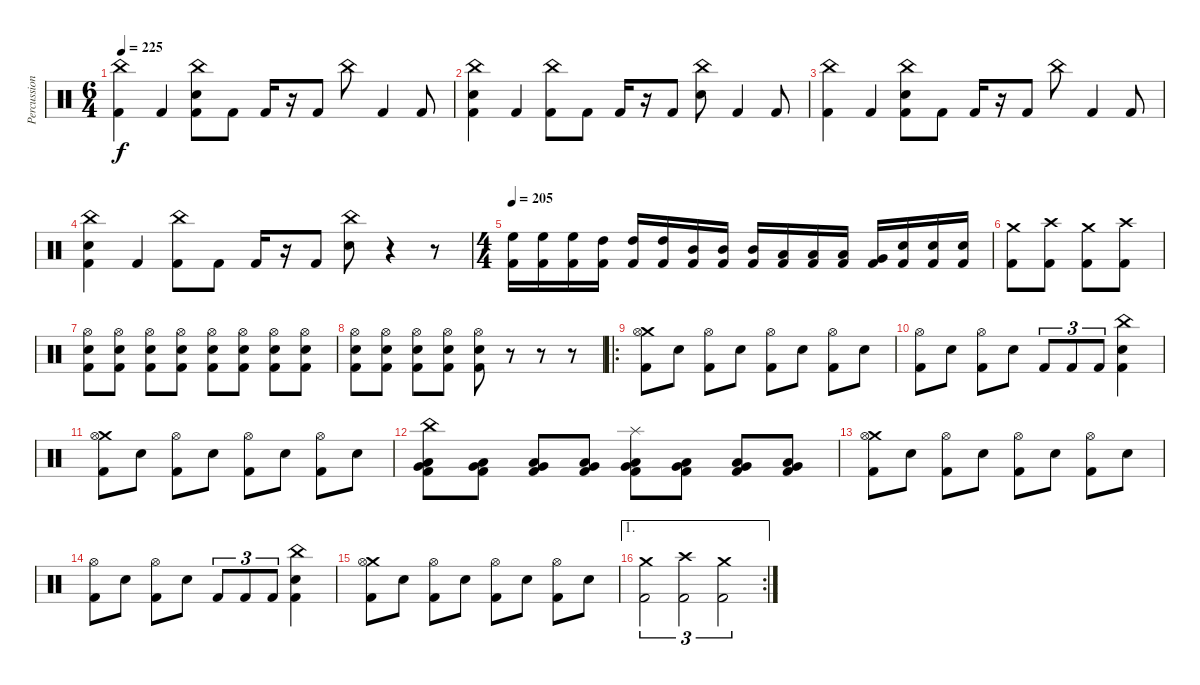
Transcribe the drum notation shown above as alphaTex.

\track ("Percussion" "Percussion") {instrument percussion}
\staff {score}
\articulation defaults
\ts (6 4)
\tempo 225
\clef neutral
\ks c
("China (hit)" "Kick (hit) 2").4{dy f} "Kick (hit) 2".4 ("China (hit)" "Snare (hit) 2" "Kick (hit) 2").8 "Kick (hit) 2".8 "Kick (hit) 2".16 r.16 "Kick (hit) 2".8 "China (hit)".8 "Kick (hit) 2".4 "Kick (hit) 2".8 |
("China (hit)" "Snare (hit) 2" "Kick (hit) 2").4 "Kick (hit) 2".4 ("China (hit)" "Kick (hit) 2").8 "Kick (hit) 2".8 "Kick (hit) 2".16 r.16 "Kick (hit) 2".8 ("China (hit)" "Snare (hit) 2").8 "Kick (hit) 2".4 "Kick (hit) 2".8 |
("China (hit)" "Kick (hit) 2").4 "Kick (hit) 2".4 ("China (hit)" "Snare (hit) 2" "Kick (hit) 2").8 "Kick (hit) 2".8 "Kick (hit) 2".16 r.16 "Kick (hit) 2".8 "China (hit)".8 "Kick (hit) 2".4 "Kick (hit) 2".8 |
("China (hit)" "Snare (hit) 2" "Kick (hit) 2").4 "Kick (hit) 2".4 ("China (hit)" "Kick (hit) 2").8 "Kick (hit) 2".8 "Kick (hit) 2".16 r.16 "Kick (hit) 2".8 ("China (hit)" "Snare (hit) 2").8 r.4 r.8 |
\ts (4 4)
\tempo 205
("High Floor Tom (hit)" "Kick (hit) 2").16 ("High Floor Tom (hit)" "Kick (hit) 2").16 ("High Floor Tom (hit)" "Kick (hit) 2").16 ("High Tom (hit)" "Kick (hit) 2").16 ("High Tom (hit)" "Kick (hit) 2").16 ("High Tom (hit)" "Kick (hit) 2").16 ("Mid Tom (hit)" "Kick (hit) 2").16 ("Mid Tom (hit)" "Kick (hit) 2").16 ("Mid Tom (hit)" "Kick (hit) 2").16 ("Low Tom (hit)" "Kick (hit) 2").16 ("Low Tom (hit)" "Kick (hit) 2").16 ("Low Tom (hit)" "Kick (hit) 2").16 ("Very Low Tom (hit)" "Kick (hit) 2").16 ("Snare (hit) 2" "Kick (hit) 2").16 ("Snare (hit) 2" "Kick (hit) 2").16 ("Snare (hit) 2" "Kick (hit) 2").16 |
("Crash medium (hit)" "Kick (hit) 2").8 ("Crash high (hit)" "Kick (hit) 2").8 ("Crash medium (hit)" "Kick (hit) 2").8 ("Crash high (hit)" "Kick (hit) 2").8 |
("Hi-Hat (open)" "Snare (hit) 2" "Kick (hit) 2").8 ("Hi-Hat (open)" "Snare (hit) 2" "Kick (hit) 2").8 ("Hi-Hat (open)" "Snare (hit) 2" "Kick (hit) 2").8 ("Hi-Hat (open)" "Snare (hit) 2" "Kick (hit) 2").8 ("Hi-Hat (open)" "Snare (hit) 2" "Kick (hit) 2").8 ("Hi-Hat (open)" "Snare (hit) 2" "Kick (hit) 2").8 ("Hi-Hat (open)" "Snare (hit) 2" "Kick (hit) 2").8 ("Hi-Hat (open)" "Snare (hit) 2" "Kick (hit) 2").8 |
("Hi-Hat (open)" "Snare (hit) 2" "Kick (hit) 2").8 ("Hi-Hat (open)" "Snare (hit) 2" "Kick (hit) 2").8 ("Hi-Hat (open)" "Snare (hit) 2" "Kick (hit) 2").8 ("Hi-Hat (open)" "Snare (hit) 2" "Kick (hit) 2").8 ("Hi-Hat (open)" "Snare (hit) 2" "Kick (hit) 2").8 r.8 r.8 r.8 |
\ro
("Crash medium (hit)" "Hi-Hat (open)" "Kick (hit) 2").8 "Snare (hit) 2".8 ("Hi-Hat (open)" "Kick (hit) 2").8 "Snare (hit) 2".8 ("Hi-Hat (open)" "Kick (hit) 2").8 "Snare (hit) 2".8 ("Hi-Hat (open)" "Kick (hit) 2").8 "Snare (hit) 2".8 |
("Hi-Hat (open)" "Kick (hit) 2").8 "Snare (hit) 2".8 ("Hi-Hat (open)" "Kick (hit) 2").8 "Snare (hit) 2".8 "Kick (hit) 2".8{tu (3 2)} "Kick (hit) 2".8{tu (3 2)} "Kick (hit) 2".8{tu (3 2)} ("China (hit)" "Snare (hit) 2" "Kick (hit) 2").4 |
("Crash medium (hit)" "Hi-Hat (open)" "Kick (hit) 2").8 "Snare (hit) 2".8 ("Hi-Hat (open)" "Kick (hit) 2").8 "Snare (hit) 2".8 ("Hi-Hat (open)" "Kick (hit) 2").8 "Snare (hit) 2".8 ("Hi-Hat (open)" "Kick (hit) 2").8 "Snare (hit) 2".8 |
("China (hit)" "Low Tom (hit)" "Kick (hit) 2" "Very Low Tom (hit)").8 ("Low Tom (hit)" "Kick (hit) 2" "Very Low Tom (hit)").8 ("Low Tom (hit)" "Kick (hit) 2" "Very Low Tom (hit)").8 ("Low Tom (hit)" "Kick (hit) 2" "Very Low Tom (hit)").8 ("Splash (hit)" "Low Tom (hit)" "Kick (hit) 2" "Very Low Tom (hit)").8 ("Low Tom (hit)" "Kick (hit) 2" "Very Low Tom (hit)").8 ("Low Tom (hit)" "Kick (hit) 2" "Very Low Tom (hit)").8 ("Low Tom (hit)" "Kick (hit) 2" "Very Low Tom (hit)").8 |
("Crash medium (hit)" "Hi-Hat (open)" "Kick (hit) 2").8 "Snare (hit) 2".8 ("Hi-Hat (open)" "Kick (hit) 2").8 "Snare (hit) 2".8 ("Hi-Hat (open)" "Kick (hit) 2").8 "Snare (hit) 2".8 ("Hi-Hat (open)" "Kick (hit) 2").8 "Snare (hit) 2".8 |
("Hi-Hat (open)" "Kick (hit) 2").8 "Snare (hit) 2".8 ("Hi-Hat (open)" "Kick (hit) 2").8 "Snare (hit) 2".8 "Kick (hit) 2".8{tu (3 2)} "Kick (hit) 2".8{tu (3 2)} "Kick (hit) 2".8{tu (3 2)} ("China (hit)" "Snare (hit) 2" "Kick (hit) 2").4 |
("Crash medium (hit)" "Hi-Hat (open)" "Kick (hit) 2").8 "Snare (hit) 2".8 ("Hi-Hat (open)" "Kick (hit) 2").8 "Snare (hit) 2".8 ("Hi-Hat (open)" "Kick (hit) 2").8 "Snare (hit) 2".8 ("Hi-Hat (open)" "Kick (hit) 2").8 "Snare (hit) 2".8 |
\ae 1
\rc 2
("Crash medium (hit)" "Kick (hit) 2").2{tu (3 2)} ("Crash high (hit)" "Kick (hit) 2").2{tu (3 2)} ("Crash medium (hit)" "Kick (hit) 2").2{tu (3 2)}
